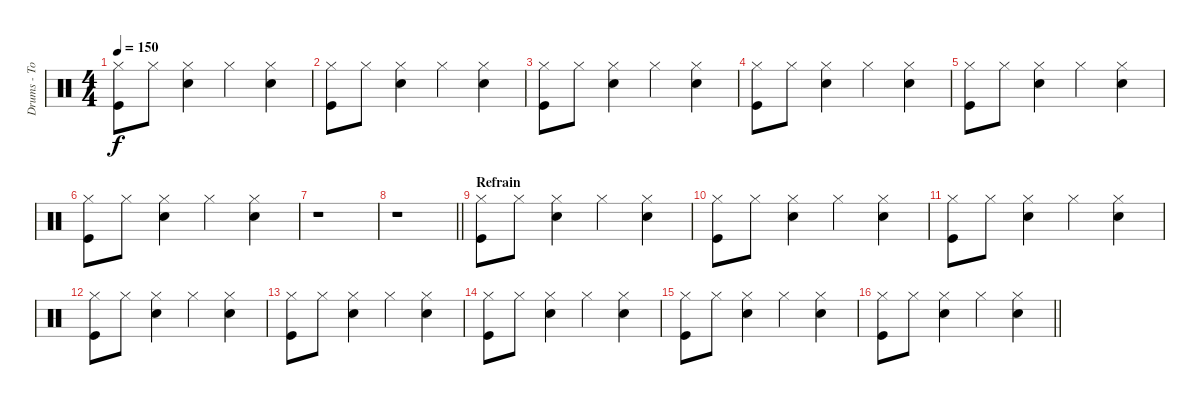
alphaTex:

\track ("Drums - Tobi Häuser" "Drums - To") {instrument percussion}
\staff {score}
\articulation defaults
\ts (4 4)
\tempo 150
\clef neutral
\ks c
("Hi-Hat (closed)" "Kick (hit)").8{dy f} "Hi-Hat (closed)".8 ("Hi-Hat (closed)" "Snare (hit) 2").4 "Hi-Hat (closed)".4 ("Hi-Hat (closed)" "Snare (hit) 2").4 |
("Hi-Hat (closed)" "Kick (hit)").8 "Hi-Hat (closed)".8 ("Hi-Hat (closed)" "Snare (hit) 2").4 "Hi-Hat (closed)".4 ("Hi-Hat (closed)" "Snare (hit) 2").4 |
("Hi-Hat (closed)" "Kick (hit)").8 "Hi-Hat (closed)".8 ("Hi-Hat (closed)" "Snare (hit) 2").4 "Hi-Hat (closed)".4 ("Hi-Hat (closed)" "Snare (hit) 2").4 |
("Hi-Hat (closed)" "Kick (hit)").8 "Hi-Hat (closed)".8 ("Hi-Hat (closed)" "Snare (hit) 2").4 "Hi-Hat (closed)".4 ("Hi-Hat (closed)" "Snare (hit) 2").4 |
("Hi-Hat (closed)" "Kick (hit)").8 "Hi-Hat (closed)".8 ("Hi-Hat (closed)" "Snare (hit) 2").4 "Hi-Hat (closed)".4 ("Hi-Hat (closed)" "Snare (hit) 2").4 |
("Hi-Hat (closed)" "Kick (hit)").8 "Hi-Hat (closed)".8 ("Hi-Hat (closed)" "Snare (hit) 2").4 "Hi-Hat (closed)".4 ("Hi-Hat (closed)" "Snare (hit) 2").4 |
r.1 |
\barLineRight lightlight
r.1 |
\section ("" "Refrain")
("Hi-Hat (closed)" "Kick (hit)").8 "Hi-Hat (closed)".8 ("Hi-Hat (closed)" "Snare (hit) 2").4 "Hi-Hat (closed)".4 ("Hi-Hat (closed)" "Snare (hit) 2").4 |
("Hi-Hat (closed)" "Kick (hit)").8 "Hi-Hat (closed)".8 ("Hi-Hat (closed)" "Snare (hit) 2").4 "Hi-Hat (closed)".4 ("Hi-Hat (closed)" "Snare (hit) 2").4 |
("Hi-Hat (closed)" "Kick (hit)").8 "Hi-Hat (closed)".8 ("Hi-Hat (closed)" "Snare (hit) 2").4 "Hi-Hat (closed)".4 ("Hi-Hat (closed)" "Snare (hit) 2").4 |
("Hi-Hat (closed)" "Kick (hit)").8 "Hi-Hat (closed)".8 ("Hi-Hat (closed)" "Snare (hit) 2").4 "Hi-Hat (closed)".4 ("Hi-Hat (closed)" "Snare (hit) 2").4 |
("Hi-Hat (closed)" "Kick (hit)").8 "Hi-Hat (closed)".8 ("Hi-Hat (closed)" "Snare (hit) 2").4 "Hi-Hat (closed)".4 ("Hi-Hat (closed)" "Snare (hit) 2").4 |
("Hi-Hat (closed)" "Kick (hit)").8 "Hi-Hat (closed)".8 ("Hi-Hat (closed)" "Snare (hit) 2").4 "Hi-Hat (closed)".4 ("Hi-Hat (closed)" "Snare (hit) 2").4 |
("Hi-Hat (closed)" "Kick (hit)").8 "Hi-Hat (closed)".8 ("Hi-Hat (closed)" "Snare (hit) 2").4 "Hi-Hat (closed)".4 ("Hi-Hat (closed)" "Snare (hit) 2").4 |
\barLineRight lightlight
("Hi-Hat (closed)" "Kick (hit)").8 "Hi-Hat (closed)".8 ("Hi-Hat (closed)" "Snare (hit) 2").4 "Hi-Hat (closed)".4 ("Hi-Hat (closed)" "Snare (hit) 2").4
